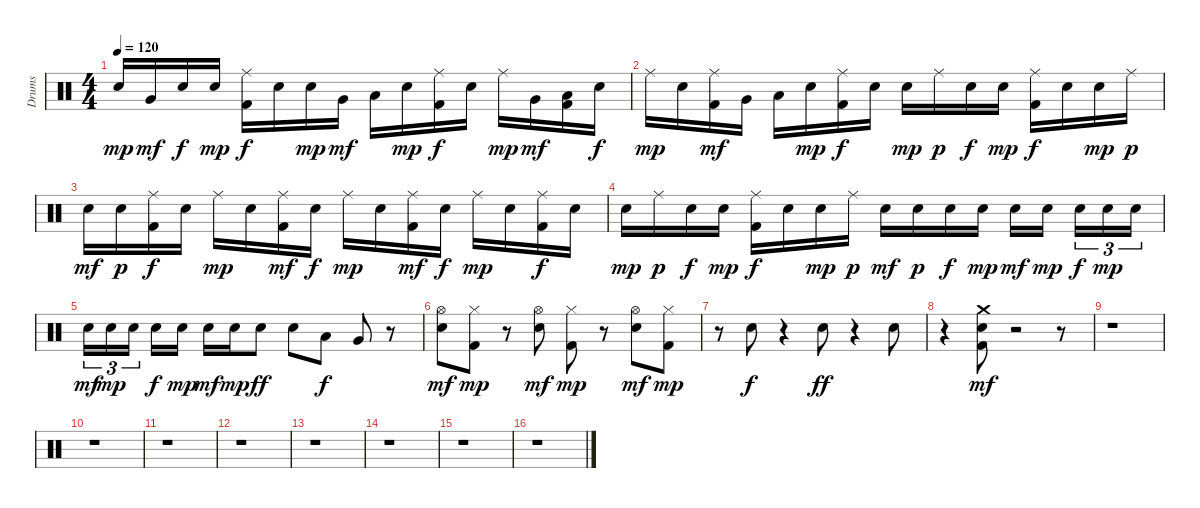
\track ("Drums" "Drums") {instrument percussion}
\staff {score}
\articulation defaults
\ts (4 4)
\tempo 120
\clef neutral
\ks c "Electric Snare (hit)".16{dy mp} "Very Low Tom (hit)".16{dy mf} "Electric Snare (hit)".16{dy f} "Electric Snare (hit)".16{dy mp}
("Kick (hit) 2" "Ride (middle)").16{dy f} "Electric Snare (hit)".16 "Electric Snare (hit)".16{dy mp} "Very Low Tom (hit)".16{dy mf} "Low Floor Tom (hit)".16 "Electric Snare (hit)".16{dy mp} ("Kick (hit) 2" "Ride (middle)").16{dy f} "Electric Snare (hit)".16 "Ride (middle)".16{dy mp} "Very Low Tom (hit)".16{dy mf} ("Kick (hit) 2" "Low Floor Tom (hit)").16 "Electric Snare (hit)".16{dy f} |
"Ride (middle)".16{dy mp} "Electric Snare (hit)".16 ("Kick (hit) 2" "Ride (middle)").16{dy mf} "Very Low Tom (hit)".16 "Low Floor Tom (hit)".16 "Electric Snare (hit)".16{dy mp} ("Kick (hit) 2" "Ride (middle)").16{dy f} "Electric Snare (hit)".16 "Electric Snare (hit)".16{dy mp} "Ride (middle)".16{dy p} "Electric Snare (hit)".16{dy f} "Electric Snare (hit)".16{dy mp} ("Kick (hit) 2" "Ride (middle)").16{dy f} "Electric Snare (hit)".16 "Electric Snare (hit)".16{dy mp} "Ride (middle)".16{dy p} |
"Electric Snare (hit)".16{dy mf} "Electric Snare (hit)".16{dy p} ("Kick (hit) 2" "Ride (middle)").16{dy f} "Electric Snare (hit)".16 "Ride (middle)".16{dy mp} "Electric Snare (hit)".16 ("Kick (hit) 2" "Ride (middle)").16{dy mf} "Electric Snare (hit)".16{dy f} "Ride (middle)".16{dy mp} "Electric Snare (hit)".16 ("Kick (hit) 2" "Ride (middle)").16{dy mf} "Electric Snare (hit)".16{dy f} "Ride (middle)".16{dy mp} "Electric Snare (hit)".16 ("Kick (hit) 2" "Ride (middle)").16{dy f} "Electric Snare (hit)".16 |
"Electric Snare (hit)".16{dy mp} "Ride (middle)".16{dy p} "Electric Snare (hit)".16{dy f} "Electric Snare (hit)".16{dy mp} ("Kick (hit) 2" "Ride (middle)").16{dy f} "Electric Snare (hit)".16 "Electric Snare (hit)".16{dy mp} "Ride (middle)".16{dy p} "Electric Snare (hit)".16{dy mf} "Electric Snare (hit)".16{dy p} "Electric Snare (hit)".16{dy f} "Electric Snare (hit)".16{dy mp} "Electric Snare (hit)".16{dy mf} "Electric Snare (hit)".16{dy mp} "Electric Snare (hit)".16{tu (3 2) dy f} "Electric Snare (hit)".16{tu (3 2) dy mp} "Electric Snare (hit)".16{tu (3 2)} |
"Electric Snare (hit)".16{tu (3 2) dy mf} "Electric Snare (hit)".16{tu (3 2) dy mp} "Electric Snare (hit)".16{tu (3 2)} "Electric Snare (hit)".16{dy f} "Electric Snare (hit)".16{dy mp} "Electric Snare (hit)".16{dy mf} "Electric Snare (hit)".16{dy mp} "Electric Snare (hit)".8{dy ff} "Electric Snare (hit)".8 "Low Tom (hit)".8{dy f} "Very Low Tom (hit)".8 r.8 |
("Electric Snare (hit)" "Hi-Hat (open)").8{dy mf} ("Kick (hit) 2" "Hi-Hat (closed)").8{dy mp} r.8 ("Electric Snare (hit)" "Hi-Hat (open)").8{dy mf} ("Kick (hit) 2" "Hi-Hat (closed)").8{dy mp} r.8 ("Electric Snare (hit)" "Hi-Hat (open)").8{dy mf} ("Kick (hit) 2" "Hi-Hat (closed)").8{dy mp} |
r.8 "Electric Snare (hit)".8{dy f} r.4 "Electric Snare (hit)".8{dy ff} r.4 "Electric Snare (hit)".8 |
r.4 ("Kick (hit) 2" "Electric Snare (hit)" "Crash medium (hit)").8{dy mf} r.2 r.8 |
r.1 |
r.1 |
r.1 |
r.1 |
r.1 |
r.1 |
r.1 |
r.1
